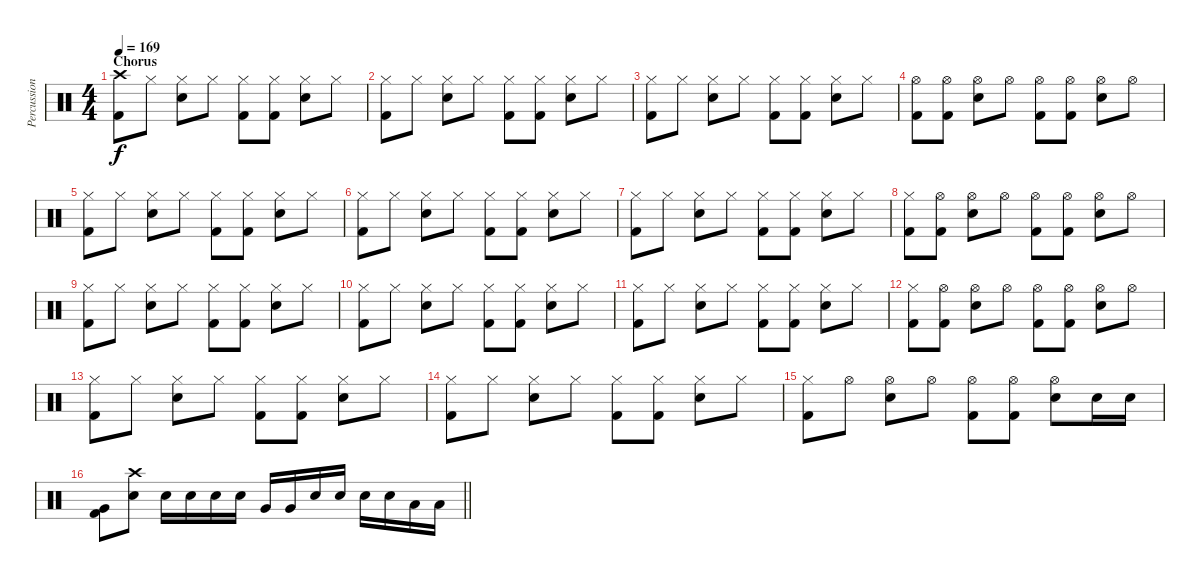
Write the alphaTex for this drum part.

\track ("Percussion" "Percussion") {instrument percussion}
\staff {score}
\articulation defaults
\ts (4 4)
\section ("" "Chorus")
\tempo 169
\clef neutral
\ks c
("Crash high (hit)" "Kick (hit) 2").8{dy f} "Hi-Hat (closed)".8 ("Hi-Hat (closed)" "Electric Snare (hit)").8 "Hi-Hat (closed)".8 ("Hi-Hat (closed)" "Kick (hit) 2").8 ("Hi-Hat (closed)" "Kick (hit) 2").8 ("Hi-Hat (closed)" "Electric Snare (hit)").8 "Hi-Hat (closed)".8 |
("Hi-Hat (closed)" "Kick (hit) 2").8 "Hi-Hat (closed)".8 ("Hi-Hat (closed)" "Electric Snare (hit)").8 "Hi-Hat (closed)".8 ("Hi-Hat (closed)" "Kick (hit) 2").8 ("Hi-Hat (closed)" "Kick (hit) 2").8 ("Hi-Hat (closed)" "Electric Snare (hit)").8 "Hi-Hat (closed)".8 |
("Hi-Hat (closed)" "Kick (hit) 2").8 "Hi-Hat (closed)".8 ("Hi-Hat (closed)" "Electric Snare (hit)").8 "Hi-Hat (closed)".8 ("Hi-Hat (closed)" "Kick (hit) 2").8 ("Hi-Hat (closed)" "Kick (hit) 2").8 ("Hi-Hat (closed)" "Electric Snare (hit)").8 "Hi-Hat (closed)".8 |
("Hi-Hat (open)" "Kick (hit) 2").8 ("Hi-Hat (open)" "Kick (hit) 2").8 ("Hi-Hat (open)" "Electric Snare (hit)").8 "Hi-Hat (open)".8 ("Hi-Hat (open)" "Kick (hit) 2").8 ("Hi-Hat (open)" "Kick (hit) 2").8 ("Hi-Hat (open)" "Electric Snare (hit)").8 "Hi-Hat (open)".8 |
("Hi-Hat (closed)" "Kick (hit) 2").8 "Hi-Hat (closed)".8 ("Hi-Hat (closed)" "Electric Snare (hit)").8 "Hi-Hat (closed)".8 ("Hi-Hat (closed)" "Kick (hit) 2").8 ("Hi-Hat (closed)" "Kick (hit) 2").8 ("Hi-Hat (closed)" "Electric Snare (hit)").8 "Hi-Hat (closed)".8 |
("Hi-Hat (closed)" "Kick (hit) 2").8 "Hi-Hat (closed)".8 ("Hi-Hat (closed)" "Electric Snare (hit)").8 "Hi-Hat (closed)".8 ("Hi-Hat (closed)" "Kick (hit) 2").8 ("Hi-Hat (closed)" "Kick (hit) 2").8 ("Hi-Hat (closed)" "Electric Snare (hit)").8 "Hi-Hat (closed)".8 |
("Hi-Hat (closed)" "Kick (hit) 2").8 "Hi-Hat (closed)".8 ("Hi-Hat (closed)" "Electric Snare (hit)").8 "Hi-Hat (closed)".8 ("Hi-Hat (closed)" "Kick (hit) 2").8 ("Hi-Hat (closed)" "Kick (hit) 2").8 ("Hi-Hat (closed)" "Electric Snare (hit)").8 "Hi-Hat (closed)".8 |
("Hi-Hat (closed)" "Kick (hit) 2").8 ("Hi-Hat (open)" "Kick (hit) 2").8 ("Hi-Hat (open)" "Electric Snare (hit)").8 "Hi-Hat (open)".8 ("Hi-Hat (open)" "Kick (hit) 2").8 ("Hi-Hat (open)" "Kick (hit) 2").8 ("Hi-Hat (open)" "Electric Snare (hit)").8 "Hi-Hat (open)".8 |
("Hi-Hat (closed)" "Kick (hit) 2").8 "Hi-Hat (closed)".8 ("Hi-Hat (closed)" "Electric Snare (hit)").8 "Hi-Hat (closed)".8 ("Hi-Hat (closed)" "Kick (hit) 2").8 ("Hi-Hat (closed)" "Kick (hit) 2").8 ("Hi-Hat (closed)" "Electric Snare (hit)").8 "Hi-Hat (closed)".8 |
("Hi-Hat (closed)" "Kick (hit) 2").8 "Hi-Hat (closed)".8 ("Hi-Hat (closed)" "Electric Snare (hit)").8 "Hi-Hat (closed)".8 ("Hi-Hat (closed)" "Kick (hit) 2").8 ("Hi-Hat (closed)" "Kick (hit) 2").8 ("Hi-Hat (closed)" "Electric Snare (hit)").8 "Hi-Hat (closed)".8 |
("Hi-Hat (closed)" "Kick (hit) 2").8 "Hi-Hat (closed)".8 ("Hi-Hat (closed)" "Electric Snare (hit)").8 "Hi-Hat (closed)".8 ("Hi-Hat (closed)" "Kick (hit) 2").8 ("Hi-Hat (closed)" "Kick (hit) 2").8 ("Hi-Hat (closed)" "Electric Snare (hit)").8 "Hi-Hat (closed)".8 |
("Hi-Hat (closed)" "Kick (hit) 2").8 ("Hi-Hat (open)" "Kick (hit) 2").8 ("Hi-Hat (open)" "Electric Snare (hit)").8 "Hi-Hat (open)".8 ("Hi-Hat (open)" "Kick (hit) 2").8 ("Hi-Hat (open)" "Kick (hit) 2").8 ("Hi-Hat (open)" "Electric Snare (hit)").8 "Hi-Hat (open)".8 |
("Hi-Hat (closed)" "Kick (hit) 2").8 "Hi-Hat (closed)".8 ("Hi-Hat (closed)" "Electric Snare (hit)").8 "Hi-Hat (closed)".8 ("Hi-Hat (closed)" "Kick (hit) 2").8 ("Hi-Hat (closed)" "Kick (hit) 2").8 ("Hi-Hat (closed)" "Electric Snare (hit)").8 "Hi-Hat (closed)".8 |
("Hi-Hat (closed)" "Kick (hit) 2").8 "Hi-Hat (closed)".8 ("Hi-Hat (closed)" "Electric Snare (hit)").8 "Hi-Hat (closed)".8 ("Hi-Hat (closed)" "Kick (hit) 2").8 ("Hi-Hat (closed)" "Kick (hit) 2").8 ("Hi-Hat (closed)" "Electric Snare (hit)").8 "Hi-Hat (closed)".8 |
("Hi-Hat (closed)" "Kick (hit) 2").8 "Hi-Hat (open)".8 ("Hi-Hat (open)" "Electric Snare (hit)").8 "Hi-Hat (open)".8 ("Hi-Hat (open)" "Kick (hit) 2").8 ("Hi-Hat (open)" "Kick (hit) 2").8 ("Hi-Hat (open)" "Electric Snare (hit)").8 "Electric Snare (hit)".16 "Electric Snare (hit)".16 |
\barLineRight lightlight
("Very Low Tom (hit)" "Kick (hit) 2").8 ("Crash high (hit)" "Electric Snare (hit)").8 "Electric Snare (hit)".16 "Electric Snare (hit)".16 "Electric Snare (hit)".16 "Electric Snare (hit)".16 "Very Low Tom (hit)".16 "Very Low Tom (hit)".16 "Electric Snare (hit)".16 "Electric Snare (hit)".16 "Electric Snare (hit)".16 "Electric Snare (hit)".16 "Low Floor Tom (hit)".16 "Low Floor Tom (hit)".16
